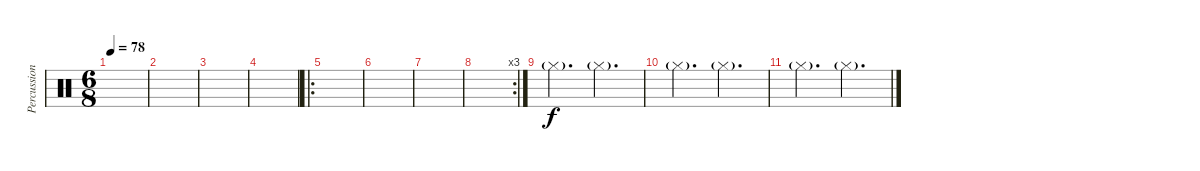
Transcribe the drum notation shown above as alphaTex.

\track ("Percussion" "Percussion") {instrument percussion}
\staff {score}
\articulation defaults
\ts (6 8)
\tempo 78
\clef neutral
\ks c
|
|
|
|
\ro
|
|
|
\rc 3
|
"Hi-Hat (closed)"{g}.4{d} "Hi-Hat (closed)"{g}.4{d} |
"Hi-Hat (closed)"{g}.4{d} "Hi-Hat (closed)"{g}.4{d} |
"Hi-Hat (closed)"{g}.4{d} "Hi-Hat (closed)"{g}.4{d}
